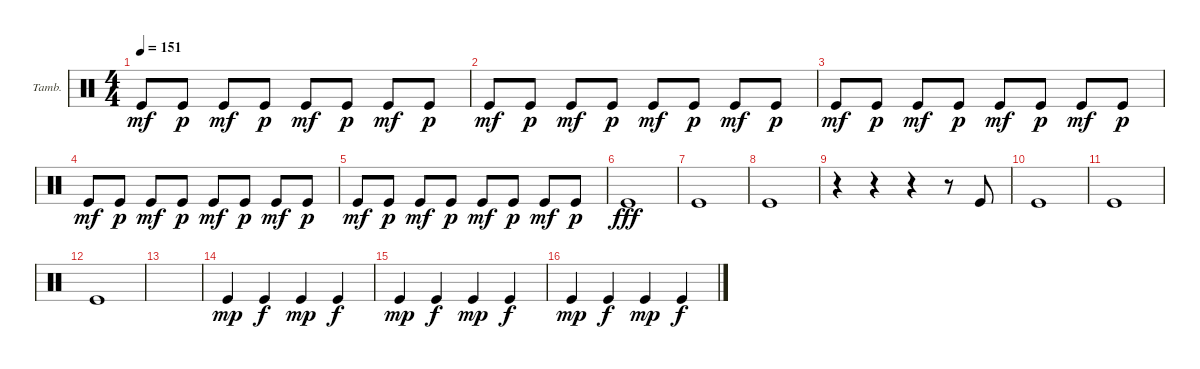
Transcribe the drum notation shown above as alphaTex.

\defaultSystemsLayout 4
\bracketExtendMode groupsimilarinstruments
\firstSystemTrackNameOrientation horizontal
\otherSystemsTrackNameOrientation horizontal
\track ("Helders" "Tamb.") {instrument percussion}
\staff {score}
\articulation defaults
\ts (4 4)
\tempo 151
\clef neutral
\ks c "Kick (hit)".8{dy mf} "Kick (hit)".8{dy p} "Kick (hit)".8{dy mf} "Kick (hit)".8{dy p} "Kick (hit)".8{dy mf} "Kick (hit)".8{dy p} "Kick (hit)".8{dy mf} "Kick (hit)".8{dy p}
|
"Kick (hit)".8{dy mf} "Kick (hit)".8{dy p} "Kick (hit)".8{dy mf} "Kick (hit)".8{dy p} "Kick (hit)".8{dy mf} "Kick (hit)".8{dy p} "Kick (hit)".8{dy mf} "Kick (hit)".8{dy p} |
"Kick (hit)".8{dy mf} "Kick (hit)".8{dy p} "Kick (hit)".8{dy mf} "Kick (hit)".8{dy p} "Kick (hit)".8{dy mf} "Kick (hit)".8{dy p} "Kick (hit)".8{dy mf} "Kick (hit)".8{dy p} |
"Kick (hit)".8{dy mf} "Kick (hit)".8{dy p} "Kick (hit)".8{dy mf} "Kick (hit)".8{dy p} "Kick (hit)".8{dy mf} "Kick (hit)".8{dy p} "Kick (hit)".8{dy mf} "Kick (hit)".8{dy p} |
"Kick (hit)".8{dy mf} "Kick (hit)".8{dy p} "Kick (hit)".8{dy mf} "Kick (hit)".8{dy p} "Kick (hit)".8{dy mf} "Kick (hit)".8{dy p} "Kick (hit)".8{dy mf} "Kick (hit)".8{dy p} |
"Kick (hit)".1{dy fff} |
"Kick (hit)".1 |
"Kick (hit)".1 |
r.4 r.4 r.4 r.8 "Kick (hit)".8 |
"Kick (hit)".1 |
"Kick (hit)".1 |
"Kick (hit)".1 |
|
"Kick (hit)".4{dy mp} "Kick (hit)".4{dy f} "Kick (hit)".4{dy mp} "Kick (hit)".4{dy f} |
"Kick (hit)".4{dy mp} "Kick (hit)".4{dy f} "Kick (hit)".4{dy mp} "Kick (hit)".4{dy f} |
"Kick (hit)".4{dy mp} "Kick (hit)".4{dy f} "Kick (hit)".4{dy mp} "Kick (hit)".4{dy f}
